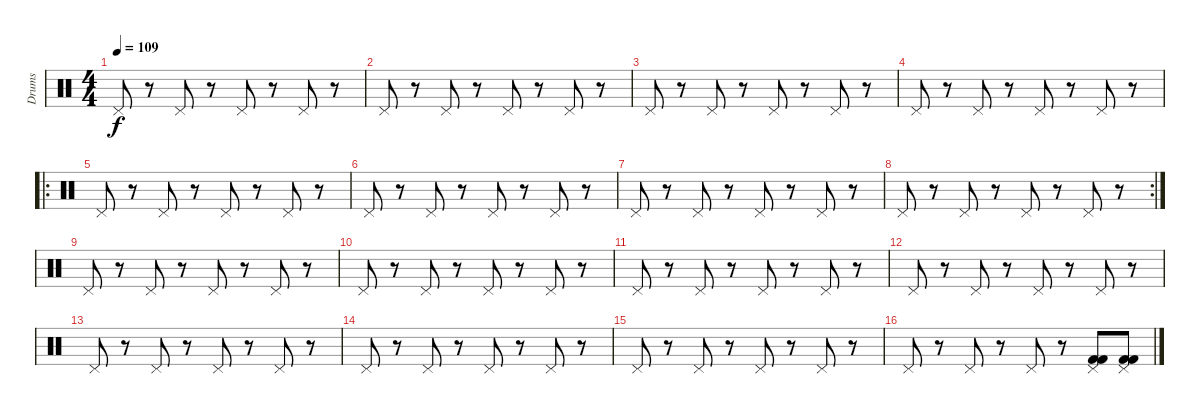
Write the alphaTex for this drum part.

\track ("Drums" "Drums") {instrument percussion}
\staff {score}
\articulation defaults
\ts (4 4)
\tempo 109
\clef neutral
\ks c "Pedal Hi-Hat (hit)".8{dy f}
r.8 "Pedal Hi-Hat (hit)".8 r.8 "Pedal Hi-Hat (hit)".8 r.8 "Pedal Hi-Hat (hit)".8 r.8 |
"Pedal Hi-Hat (hit)".8 r.8 "Pedal Hi-Hat (hit)".8 r.8 "Pedal Hi-Hat (hit)".8 r.8 "Pedal Hi-Hat (hit)".8 r.8 |
"Pedal Hi-Hat (hit)".8 r.8 "Pedal Hi-Hat (hit)".8 r.8 "Pedal Hi-Hat (hit)".8 r.8 "Pedal Hi-Hat (hit)".8 r.8 |
"Pedal Hi-Hat (hit)".8 r.8 "Pedal Hi-Hat (hit)".8 r.8 "Pedal Hi-Hat (hit)".8 r.8 "Pedal Hi-Hat (hit)".8 r.8 |
\ro "Pedal Hi-Hat (hit)".8
r.8 "Pedal Hi-Hat (hit)".8 r.8 "Pedal Hi-Hat (hit)".8 r.8 "Pedal Hi-Hat (hit)".8 r.8 |
"Pedal Hi-Hat (hit)".8 r.8 "Pedal Hi-Hat (hit)".8 r.8 "Pedal Hi-Hat (hit)".8 r.8 "Pedal Hi-Hat (hit)".8 r.8 |
"Pedal Hi-Hat (hit)".8 r.8 "Pedal Hi-Hat (hit)".8 r.8 "Pedal Hi-Hat (hit)".8 r.8 "Pedal Hi-Hat (hit)".8 r.8 |
\rc 2 "Pedal Hi-Hat (hit)".8
r.8 "Pedal Hi-Hat (hit)".8 r.8 "Pedal Hi-Hat (hit)".8 r.8 "Pedal Hi-Hat (hit)".8 r.8 |
"Pedal Hi-Hat (hit)".8 r.8 "Pedal Hi-Hat (hit)".8 r.8 "Pedal Hi-Hat (hit)".8 r.8 "Pedal Hi-Hat (hit)".8 r.8 |
"Pedal Hi-Hat (hit)".8 r.8 "Pedal Hi-Hat (hit)".8 r.8 "Pedal Hi-Hat (hit)".8 r.8 "Pedal Hi-Hat (hit)".8 r.8 |
"Pedal Hi-Hat (hit)".8 r.8 "Pedal Hi-Hat (hit)".8 r.8 "Pedal Hi-Hat (hit)".8 r.8 "Pedal Hi-Hat (hit)".8 r.8 |
"Pedal Hi-Hat (hit)".8 r.8 "Pedal Hi-Hat (hit)".8 r.8 "Pedal Hi-Hat (hit)".8 r.8 "Pedal Hi-Hat (hit)".8 r.8 |
"Pedal Hi-Hat (hit)".8 r.8 "Pedal Hi-Hat (hit)".8 r.8 "Pedal Hi-Hat (hit)".8 r.8 "Pedal Hi-Hat (hit)".8 r.8 |
"Pedal Hi-Hat (hit)".8 r.8 "Pedal Hi-Hat (hit)".8 r.8 "Pedal Hi-Hat (hit)".8 r.8 "Pedal Hi-Hat (hit)".8 r.8 |
"Pedal Hi-Hat (hit)".8 r.8 "Pedal Hi-Hat (hit)".8 r.8 "Pedal Hi-Hat (hit)".8 r.8 "Pedal Hi-Hat (hit)".8 r.8 |
"Pedal Hi-Hat (hit)".8 r.8 "Pedal Hi-Hat (hit)".8 r.8 "Pedal Hi-Hat (hit)".8 r.8 ("Pedal Hi-Hat (hit)" "Kick (hit) 2" "Kick (hit) 2").8 ("Pedal Hi-Hat (hit)" "Kick (hit) 2" "Kick (hit) 2").8
